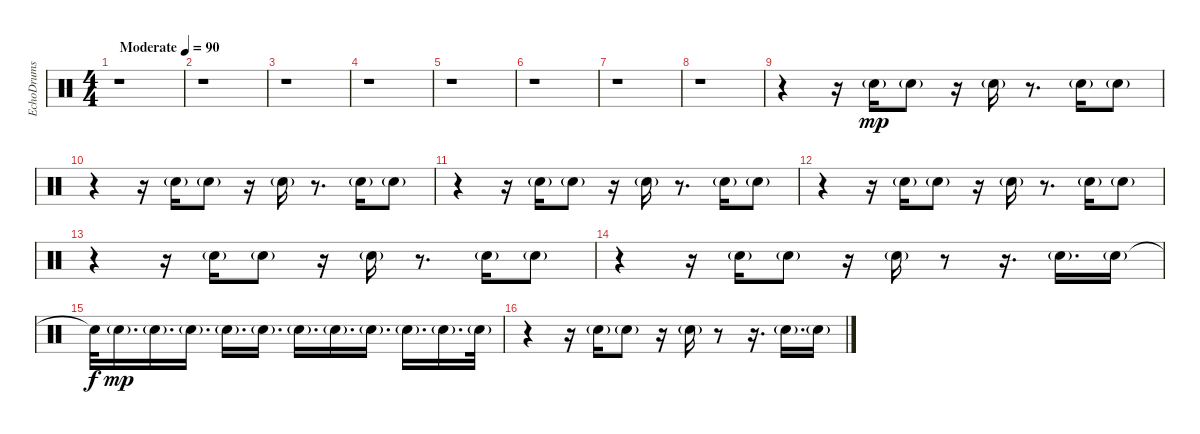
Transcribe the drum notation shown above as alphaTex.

\track ("EchoDrums" "EchoDrums") {instrument percussion}
\staff {score}
\articulation defaults
\ts (4 4)
\tempo (90 "Moderate")
\clef neutral
\ks c
r.1{dy mp} |
r.1 |
r.1 |
r.1 |
r.1 |
r.1 |
r.1 |
r.1 |
r.4 r.16 "Electric Snare (hit)"{g}.16 "Electric Snare (hit)"{g}.8 r.16 "Electric Snare (hit)"{g}.16 r.8{d} "Electric Snare (hit)"{g}.16 "Electric Snare (hit)"{g}.8 |
r.4 r.16 "Electric Snare (hit)"{g}.16 "Electric Snare (hit)"{g}.8 r.16 "Electric Snare (hit)"{g}.16 r.8{d} "Electric Snare (hit)"{g}.16 "Electric Snare (hit)"{g}.8 |
r.4 r.16 "Electric Snare (hit)"{g}.16 "Electric Snare (hit)"{g}.8 r.16 "Electric Snare (hit)"{g}.16 r.8{d} "Electric Snare (hit)"{g}.16 "Electric Snare (hit)"{g}.8 |
r.4 r.16 "Electric Snare (hit)"{g}.16 "Electric Snare (hit)"{g}.8 r.16 "Electric Snare (hit)"{g}.16 r.8{d} "Electric Snare (hit)"{g}.16 "Electric Snare (hit)"{g}.8 |
r.4 r.16 "Electric Snare (hit)"{g}.16 "Electric Snare (hit)"{g}.8 r.16 "Electric Snare (hit)"{g}.16 r.8{d} "Electric Snare (hit)"{g}.16 "Electric Snare (hit)"{g}.8 |
r.4 r.16 "Electric Snare (hit)"{g}.16 "Electric Snare (hit)"{g}.8 r.16 "Electric Snare (hit)"{g}.16 r.8 r.16{d} "Electric Snare (hit)"{g}.16{d} "Electric Snare (hit)"{g}.16 |
"Snare (hit)"{t}.32{dy f} "Electric Snare (hit)"{g}.16{d dy mp} "Electric Snare (hit)"{g}.16{d} "Electric Snare (hit)"{g}.16{d} "Electric Snare (hit)"{g}.16{d} "Electric Snare (hit)"{g}.16{d} "Electric Snare (hit)"{g}.16{d} "Electric Snare (hit)"{g}.16{d} "Electric Snare (hit)"{g}.16{d} "Electric Snare (hit)"{g}.16{d} "Electric Snare (hit)"{g}.16{d} "Electric Snare (hit)"{g}.32 |
r.4 r.16 "Electric Snare (hit)"{g}.16 "Electric Snare (hit)"{g}.8 r.16 "Electric Snare (hit)"{g}.16 r.8 r.16{d} "Electric Snare (hit)"{g}.16{d} "Electric Snare (hit)"{g}.16
